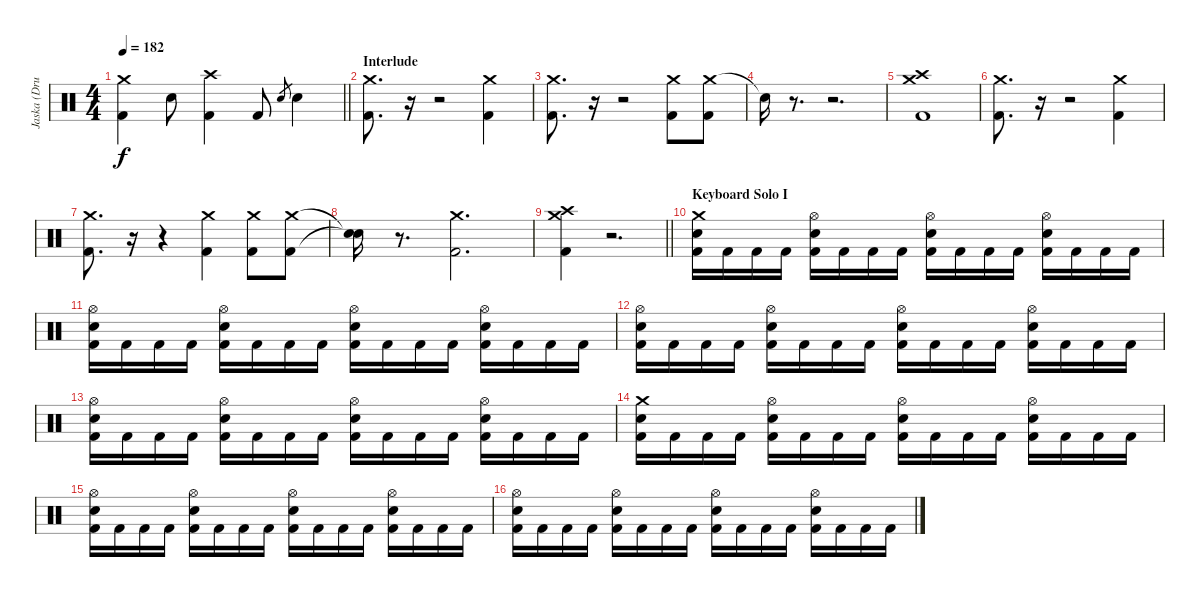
\track ("Jaska (Drums)" "Jaska (Dru") {instrument percussion}
\staff {score}
\articulation defaults
\ts (4 4)
\tempo 182
\clef neutral
\barLineRight lightlight
\ks c
("Crash medium (hit)" "Kick (hit) 2").4{dy f} "Electric Snare (hit)".8 ("Crash high (hit)" "Kick (hit) 2").4 "Kick (hit) 2".8 "Electric Snare (hit)".8{gr} "Electric Snare (hit)".4 |
\section ("" "Interlude")
("Crash medium (hit)" "Kick (hit) 2").8{d} r.16{volume 0} r.2 ("Crash medium (hit)" "Kick (hit) 2").4{volume 16} |
("Crash medium (hit)" "Kick (hit) 2").8{d} r.16{volume 0} r.2 ("Crash medium (hit)" "Kick (hit) 2").8{volume 16} ("Crash medium (hit)" "Kick (hit) 2").8 |
"Snare (hit)"{t}.16 r.8{d volume 0} r.2{d} |
("Crash medium (hit)" "Crash high (hit)" "Kick (hit) 2").1{volume 16} |
("Crash medium (hit)" "Kick (hit) 2").8{d} r.16{volume 0} r.2 ("Crash medium (hit)" "Kick (hit) 2").4{volume 16} |
("Crash medium (hit)" "Kick (hit) 2").8{d} r.16{volume 0} r.4 ("Crash medium (hit)" "Kick (hit) 2").4{volume 16} ("Crash medium (hit)" "Kick (hit) 2").8 ("Crash medium (hit)" "Kick (hit) 2").8 |
("Snare (hit)"{t} "Snare (hit)"{t}).16 r.8{d volume 0} ("Crash medium (hit)" "Kick (hit) 2").2{d volume 16} |
\barLineRight lightlight
("Crash medium (hit)" "Crash high (hit)" "Kick (hit) 2").4 r.2{d volume 0} |
\section ("" "Keyboard Solo I")
("Crash medium (hit)" "Electric Snare (hit)" "Kick (hit) 2").16{volume 16} "Kick (hit) 2".16 "Kick (hit) 2".16 "Kick (hit) 2".16 ("Hi-Hat (open)" "Electric Snare (hit)" "Kick (hit) 2").16 "Kick (hit) 2".16 "Kick (hit) 2".16 "Kick (hit) 2".16 ("Hi-Hat (open)" "Electric Snare (hit)" "Kick (hit) 2").16 "Kick (hit) 2".16 "Kick (hit) 2".16 "Kick (hit) 2".16 ("Hi-Hat (open)" "Electric Snare (hit)" "Kick (hit) 2").16 "Kick (hit) 2".16 "Kick (hit) 2".16 "Kick (hit) 2".16 |
("Hi-Hat (open)" "Electric Snare (hit)" "Kick (hit) 2").16 "Kick (hit) 2".16 "Kick (hit) 2".16 "Kick (hit) 2".16 ("Hi-Hat (open)" "Electric Snare (hit)" "Kick (hit) 2").16 "Kick (hit) 2".16 "Kick (hit) 2".16 "Kick (hit) 2".16 ("Hi-Hat (open)" "Electric Snare (hit)" "Kick (hit) 2").16 "Kick (hit) 2".16 "Kick (hit) 2".16 "Kick (hit) 2".16 ("Hi-Hat (open)" "Electric Snare (hit)" "Kick (hit) 2").16 "Kick (hit) 2".16 "Kick (hit) 2".16 "Kick (hit) 2".16 |
("Hi-Hat (open)" "Electric Snare (hit)" "Kick (hit) 2").16 "Kick (hit) 2".16 "Kick (hit) 2".16 "Kick (hit) 2".16 ("Hi-Hat (open)" "Electric Snare (hit)" "Kick (hit) 2").16 "Kick (hit) 2".16 "Kick (hit) 2".16 "Kick (hit) 2".16 ("Hi-Hat (open)" "Electric Snare (hit)" "Kick (hit) 2").16 "Kick (hit) 2".16 "Kick (hit) 2".16 "Kick (hit) 2".16 ("Hi-Hat (open)" "Electric Snare (hit)" "Kick (hit) 2").16 "Kick (hit) 2".16 "Kick (hit) 2".16 "Kick (hit) 2".16 |
("Hi-Hat (open)" "Electric Snare (hit)" "Kick (hit) 2").16 "Kick (hit) 2".16 "Kick (hit) 2".16 "Kick (hit) 2".16 ("Hi-Hat (open)" "Electric Snare (hit)" "Kick (hit) 2").16 "Kick (hit) 2".16 "Kick (hit) 2".16 "Kick (hit) 2".16 ("Hi-Hat (open)" "Electric Snare (hit)" "Kick (hit) 2").16 "Kick (hit) 2".16 "Kick (hit) 2".16 "Kick (hit) 2".16 ("Hi-Hat (open)" "Electric Snare (hit)" "Kick (hit) 2").16 "Kick (hit) 2".16 "Kick (hit) 2".16 "Kick (hit) 2".16 |
("Crash medium (hit)" "Electric Snare (hit)" "Kick (hit) 2").16 "Kick (hit) 2".16 "Kick (hit) 2".16 "Kick (hit) 2".16 ("Hi-Hat (open)" "Electric Snare (hit)" "Kick (hit) 2").16 "Kick (hit) 2".16 "Kick (hit) 2".16 "Kick (hit) 2".16 ("Hi-Hat (open)" "Electric Snare (hit)" "Kick (hit) 2").16 "Kick (hit) 2".16 "Kick (hit) 2".16 "Kick (hit) 2".16 ("Hi-Hat (open)" "Electric Snare (hit)" "Kick (hit) 2").16 "Kick (hit) 2".16 "Kick (hit) 2".16 "Kick (hit) 2".16 |
("Hi-Hat (open)" "Electric Snare (hit)" "Kick (hit) 2").16 "Kick (hit) 2".16 "Kick (hit) 2".16 "Kick (hit) 2".16 ("Hi-Hat (open)" "Electric Snare (hit)" "Kick (hit) 2").16 "Kick (hit) 2".16 "Kick (hit) 2".16 "Kick (hit) 2".16 ("Hi-Hat (open)" "Electric Snare (hit)" "Kick (hit) 2").16 "Kick (hit) 2".16 "Kick (hit) 2".16 "Kick (hit) 2".16 ("Hi-Hat (open)" "Electric Snare (hit)" "Kick (hit) 2").16 "Kick (hit) 2".16 "Kick (hit) 2".16 "Kick (hit) 2".16 |
("Hi-Hat (open)" "Electric Snare (hit)" "Kick (hit) 2").16 "Kick (hit) 2".16 "Kick (hit) 2".16 "Kick (hit) 2".16 ("Hi-Hat (open)" "Electric Snare (hit)" "Kick (hit) 2").16 "Kick (hit) 2".16 "Kick (hit) 2".16 "Kick (hit) 2".16 ("Hi-Hat (open)" "Electric Snare (hit)" "Kick (hit) 2").16 "Kick (hit) 2".16 "Kick (hit) 2".16 "Kick (hit) 2".16 ("Hi-Hat (open)" "Electric Snare (hit)" "Kick (hit) 2").16 "Kick (hit) 2".16 "Kick (hit) 2".16 "Kick (hit) 2".16
